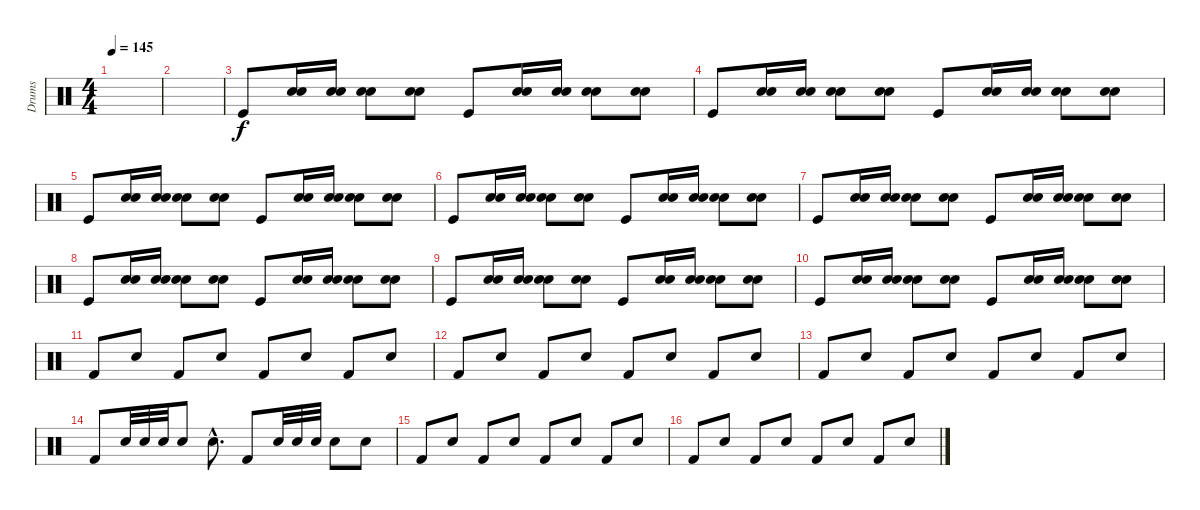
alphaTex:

\track ("Drums" "Drums") {instrument percussion}
\staff {score}
\articulation defaults
\ts (4 4)
\tempo 145
\clef neutral
\ks c
|
|
"Kick (hit)".8 ("Electric Snare (hit)" "Snare (hit) 2").16 ("Electric Snare (hit)" "Snare (hit) 2").16 ("Electric Snare (hit)" "Snare (hit) 2").8 ("Electric Snare (hit)" "Snare (hit) 2").8 "Kick (hit)".8 ("Electric Snare (hit)" "Snare (hit) 2").16 ("Electric Snare (hit)" "Snare (hit) 2").16 ("Electric Snare (hit)" "Snare (hit) 2").8 ("Electric Snare (hit)" "Snare (hit) 2").8 |
"Kick (hit)".8 ("Electric Snare (hit)" "Snare (hit) 2").16 ("Electric Snare (hit)" "Snare (hit) 2").16 ("Electric Snare (hit)" "Snare (hit) 2").8 ("Electric Snare (hit)" "Snare (hit) 2").8 "Kick (hit)".8 ("Electric Snare (hit)" "Snare (hit) 2").16 ("Electric Snare (hit)" "Snare (hit) 2").16 ("Electric Snare (hit)" "Snare (hit) 2").8 ("Electric Snare (hit)" "Snare (hit) 2").8 |
"Kick (hit)".8 ("Electric Snare (hit)" "Snare (hit) 2").16 ("Electric Snare (hit)" "Snare (hit) 2").16 ("Electric Snare (hit)" "Snare (hit) 2").8 ("Electric Snare (hit)" "Snare (hit) 2").8 "Kick (hit)".8 ("Electric Snare (hit)" "Snare (hit) 2").16 ("Electric Snare (hit)" "Snare (hit) 2").16 ("Electric Snare (hit)" "Snare (hit) 2").8 ("Electric Snare (hit)" "Snare (hit) 2").8 |
"Kick (hit)".8 ("Electric Snare (hit)" "Snare (hit) 2").16 ("Electric Snare (hit)" "Snare (hit) 2").16 ("Electric Snare (hit)" "Snare (hit) 2").8 ("Electric Snare (hit)" "Snare (hit) 2").8 "Kick (hit)".8 ("Electric Snare (hit)" "Snare (hit) 2").16 ("Electric Snare (hit)" "Snare (hit) 2").16 ("Electric Snare (hit)" "Snare (hit) 2").8 ("Electric Snare (hit)" "Snare (hit) 2").8 |
"Kick (hit)".8 ("Electric Snare (hit)" "Snare (hit) 2").16 ("Electric Snare (hit)" "Snare (hit) 2").16 ("Electric Snare (hit)" "Snare (hit) 2").8 ("Electric Snare (hit)" "Snare (hit) 2").8 "Kick (hit)".8 ("Electric Snare (hit)" "Snare (hit) 2").16 ("Electric Snare (hit)" "Snare (hit) 2").16 ("Electric Snare (hit)" "Snare (hit) 2").8 ("Electric Snare (hit)" "Snare (hit) 2").8 |
"Kick (hit)".8 ("Electric Snare (hit)" "Snare (hit) 2").16 ("Electric Snare (hit)" "Snare (hit) 2").16 ("Electric Snare (hit)" "Snare (hit) 2").8 ("Electric Snare (hit)" "Snare (hit) 2").8 "Kick (hit)".8 ("Electric Snare (hit)" "Snare (hit) 2").16 ("Electric Snare (hit)" "Snare (hit) 2").16 ("Electric Snare (hit)" "Snare (hit) 2").8 ("Electric Snare (hit)" "Snare (hit) 2").8 |
"Kick (hit)".8 ("Electric Snare (hit)" "Snare (hit) 2").16 ("Electric Snare (hit)" "Snare (hit) 2").16 ("Electric Snare (hit)" "Snare (hit) 2").8 ("Electric Snare (hit)" "Snare (hit) 2").8 "Kick (hit)".8 ("Electric Snare (hit)" "Snare (hit) 2").16 ("Electric Snare (hit)" "Snare (hit) 2").16 ("Electric Snare (hit)" "Snare (hit) 2").8 ("Electric Snare (hit)" "Snare (hit) 2").8 |
"Kick (hit)".8 ("Electric Snare (hit)" "Snare (hit) 2").16 ("Electric Snare (hit)" "Snare (hit) 2").16 ("Electric Snare (hit)" "Snare (hit) 2").8 ("Electric Snare (hit)" "Snare (hit) 2").8 "Kick (hit)".8 ("Electric Snare (hit)" "Snare (hit) 2").16 ("Electric Snare (hit)" "Snare (hit) 2").16 ("Electric Snare (hit)" "Snare (hit) 2").8 ("Electric Snare (hit)" "Snare (hit) 2").8 |
"Kick (hit) 2".8 "Snare (hit) 2".8 "Kick (hit) 2".8 "Snare (hit) 2".8 "Kick (hit) 2".8 "Snare (hit) 2".8 "Kick (hit) 2".8 "Snare (hit) 2".8 |
"Kick (hit) 2".8 "Snare (hit) 2".8 "Kick (hit) 2".8 "Snare (hit) 2".8 "Kick (hit) 2".8 "Snare (hit) 2".8 "Kick (hit) 2".8 "Snare (hit) 2".8 |
"Kick (hit) 2".8 "Snare (hit) 2".8 "Kick (hit) 2".8 "Snare (hit) 2".8 "Kick (hit) 2".8 "Snare (hit) 2".8 "Kick (hit) 2".8 "Snare (hit) 2".8 |
"Kick (hit) 2".8 "Snare (hit) 2".32 "Snare (hit) 2".32 "Snare (hit) 2".32 "Snare (hit) 2".8 "Snare (hit) 2"{hac}.8{d} "Kick (hit) 2".8 "Snare (hit) 2".32 "Snare (hit) 2".32 "Snare (hit) 2".32 "Snare (hit) 2".8 "Snare (hit) 2".8 |
"Kick (hit) 2".8 "Snare (hit) 2".8 "Kick (hit) 2".8 "Snare (hit) 2".8 "Kick (hit) 2".8 "Snare (hit) 2".8 "Kick (hit) 2".8 "Snare (hit) 2".8 |
"Kick (hit) 2".8 "Snare (hit) 2".8 "Kick (hit) 2".8 "Snare (hit) 2".8 "Kick (hit) 2".8 "Snare (hit) 2".8 "Kick (hit) 2".8 "Snare (hit) 2".8
